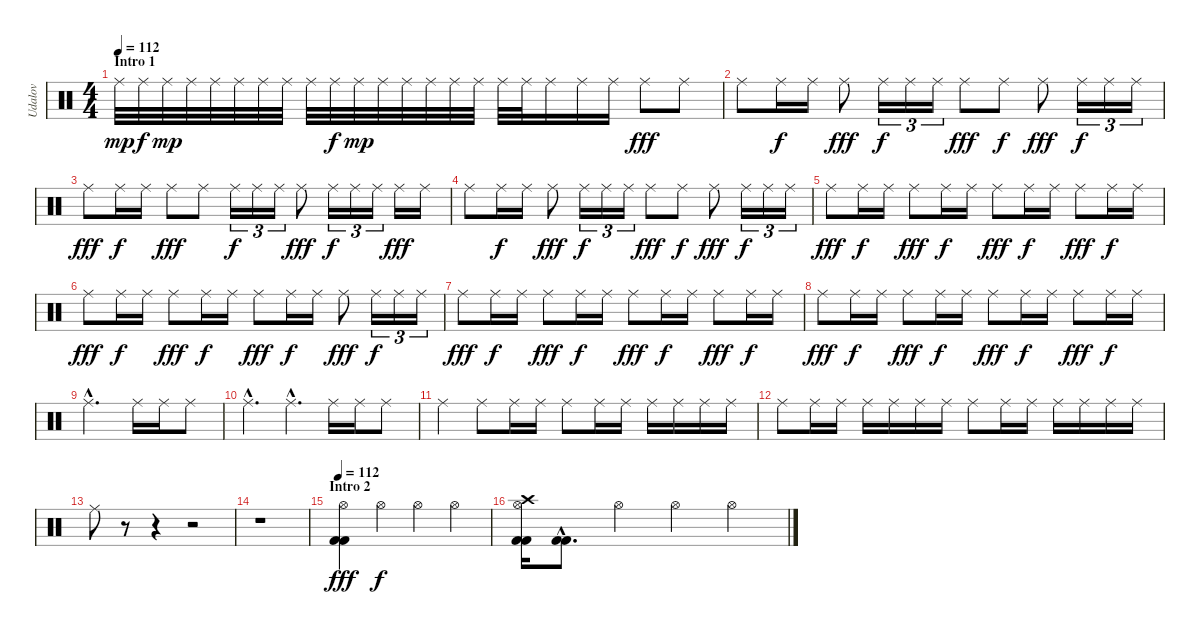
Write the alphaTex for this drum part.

\track ("Udalov" "Udalov") {instrument percussion}
\staff {score}
\articulation defaults
\ts (4 4)
\section ("" "Intro 1")
\tempo 112
\tempo 78
\tempo 112
\clef neutral
\ks c "Ride (middle)".32{dy mp} "Ride (middle)".32{dy f} "Ride (middle)".32{dy mp} "Ride (middle)".32 "Ride (middle)".32 "Ride (middle)".32 "Ride (middle)".32 "Ride (middle)".32 "Ride (middle)".32 "Ride (middle)".32{dy f} "Ride (middle)".32{dy mp} "Ride (middle)".32 "Ride (middle)".32 "Ride (middle)".32 "Ride (middle)".32 "Ride (middle)".32 "Ride (middle)".32 "Ride (middle)".32 "Ride (middle)".16 "Ride (middle)".16 "Ride (middle)".16 "Ride (middle)".8{dy fff} "Ride (middle)".8
|
"Ride (middle)".8 "Ride (middle)".16{dy f} "Ride (middle)".16 "Ride (middle)".8{dy fff} "Ride (middle)".16{tu (3 2) dy f} "Ride (middle)".16{tu (3 2)} "Ride (middle)".16{tu (3 2)} "Ride (middle)".8{dy fff} "Ride (middle)".8{dy f} "Ride (middle)".8{dy fff} "Ride (middle)".16{tu (3 2) dy f} "Ride (middle)".16{tu (3 2)} "Ride (middle)".16{tu (3 2)} |
"Ride (middle)".8{dy fff} "Ride (middle)".16{dy f} "Ride (middle)".16 "Ride (middle)".8{dy fff} "Ride (middle)".8 "Ride (middle)".16{tu (3 2) dy f} "Ride (middle)".16{tu (3 2)} "Ride (middle)".16{tu (3 2)} "Ride (middle)".8{dy fff} "Ride (middle)".16{tu (3 2) dy f} "Ride (middle)".16{tu (3 2)} "Ride (middle)".16{tu (3 2)} "Ride (middle)".16{dy fff} "Ride (middle)".16 |
"Ride (middle)".8 "Ride (middle)".16{dy f} "Ride (middle)".16 "Ride (middle)".8{dy fff} "Ride (middle)".16{tu (3 2) dy f} "Ride (middle)".16{tu (3 2)} "Ride (middle)".16{tu (3 2)} "Ride (middle)".8{dy fff} "Ride (middle)".8{dy f} "Ride (middle)".8{dy fff} "Ride (middle)".16{tu (3 2) dy f} "Ride (middle)".16{tu (3 2)} "Ride (middle)".16{tu (3 2)} |
"Ride (middle)".8{dy fff} "Ride (middle)".16{dy f} "Ride (middle)".16 "Ride (middle)".8{dy fff} "Ride (middle)".16{dy f} "Ride (middle)".16 "Ride (middle)".8{dy fff} "Ride (middle)".16{dy f} "Ride (middle)".16 "Ride (middle)".8{dy fff} "Ride (middle)".16{dy f} "Ride (middle)".16 |
"Ride (middle)".8{dy fff} "Ride (middle)".16{dy f} "Ride (middle)".16 "Ride (middle)".8{dy fff} "Ride (middle)".16{dy f} "Ride (middle)".16 "Ride (middle)".8{dy fff} "Ride (middle)".16{dy f} "Ride (middle)".16 "Ride (middle)".8{dy fff} "Ride (middle)".16{tu (3 2) dy f} "Ride (middle)".16{tu (3 2)} "Ride (middle)".16{tu (3 2)} |
"Ride (middle)".8{dy fff} "Ride (middle)".16{dy f} "Ride (middle)".16 "Ride (middle)".8{dy fff} "Ride (middle)".16{dy f} "Ride (middle)".16 "Ride (middle)".8{dy fff} "Ride (middle)".16{dy f} "Ride (middle)".16 "Ride (middle)".8{dy fff} "Ride (middle)".16{dy f} "Ride (middle)".16 |
"Ride (middle)".8{dy fff} "Ride (middle)".16{dy f} "Ride (middle)".16 "Ride (middle)".8{dy fff} "Ride (middle)".16{dy f} "Ride (middle)".16 "Ride (middle)".8{dy fff} "Ride (middle)".16{dy f} "Ride (middle)".16 "Ride (middle)".8{dy fff} "Ride (middle)".16{dy f} "Ride (middle)".16 |
"Ride (middle)"{hac}.2{d} "Ride (middle)".16 "Ride (middle)".16 "Ride (middle)".8 |
"Ride (middle)"{hac}.4{d} "Ride (middle)"{hac}.4{d} "Ride (middle)".16 "Ride (middle)".16 "Ride (middle)".8 |
"Ride (middle)".4 "Ride (middle)".8 "Ride (middle)".16 "Ride (middle)".16 "Ride (middle)".8 "Ride (middle)".16 "Ride (middle)".16 "Ride (middle)".16 "Ride (middle)".16 "Ride (middle)".16 "Ride (middle)".16 |
"Ride (middle)".8 "Ride (middle)".16 "Ride (middle)".16 "Ride (middle)".16 "Ride (middle)".16 "Ride (middle)".16 "Ride (middle)".16 "Ride (middle)".8 "Ride (middle)".16 "Ride (middle)".16 "Ride (middle)".16 "Ride (middle)".16 "Ride (middle)".16 "Ride (middle)".16 |
"Ride (middle)".8 r.8 r.4 r.2 |
r.1 |
\section ("" "Intro 2")
\tempo 112
("Hi-Hat (open)" "Kick (hit) 2" "Kick (hit) 2").4{dy fff} "Hi-Hat (open)".4{dy f} "Hi-Hat (open)".4 "Hi-Hat (open)".4 |
("Crash high (hit)" "Hi-Hat (open)" "Kick (hit) 2" "Kick (hit) 2").16 ("Kick (hit) 2"{hac} "Kick (hit) 2"{hac}).8{d} "Hi-Hat (open)".4 "Hi-Hat (open)".4 "Hi-Hat (open)".4
